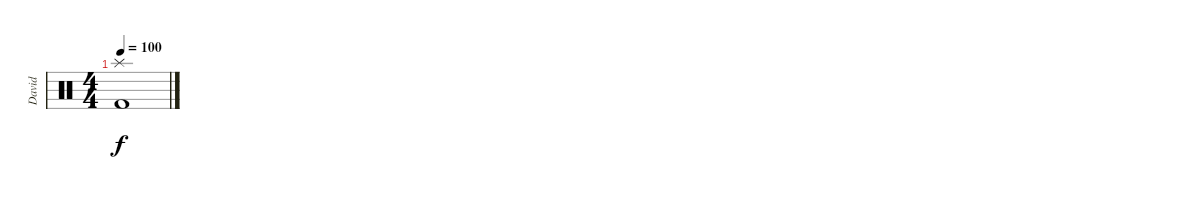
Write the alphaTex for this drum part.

\track ("David" "David") {instrument percussion}
\staff {score}
\articulation defaults
\ts (4 4)
\tempo 100
\clef neutral
\ks c
("Splash (hit)" "Kick (hit) 2").1{dy f}
